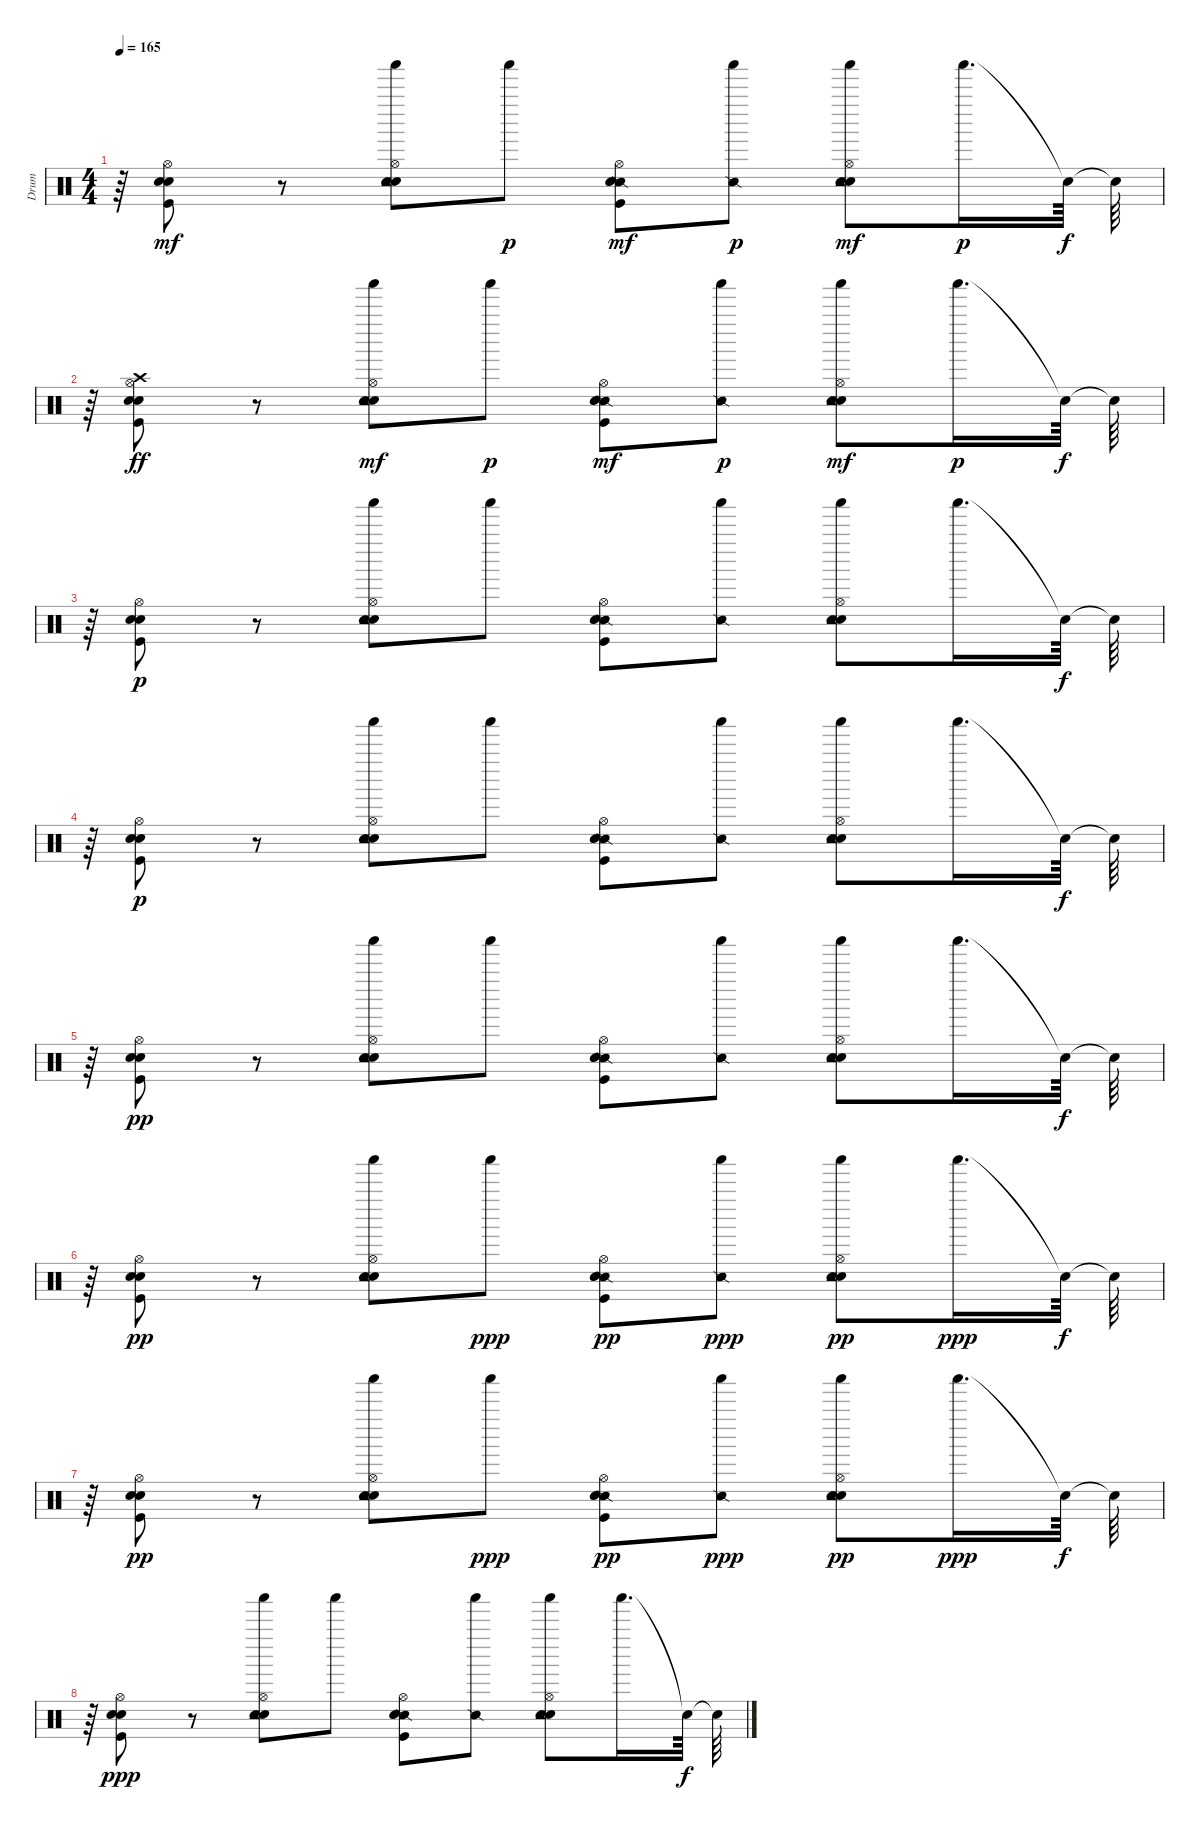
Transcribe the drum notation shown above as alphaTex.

\track ("Drum" "Drum") {instrument percussion}
\staff {score}
\articulation defaults
\ts (4 4)
\tempo 165
\clef neutral
\ks c
r.64{dy f} ("Kick (hit)" "Hand Clap (hit)" "Electric Snare (hit)" "Hi-Hat (open)").8{dy mf} r.8 ("Hand Clap (hit)" "Electric Snare (hit)" "Shaker (hit)" "Tambourine (hit)" "Hi-Hat (open)").8 "Shaker (hit)".8{dy p} ("Snare (side stick) 2" "Kick (hit)" "Hand Clap (hit)" "Electric Snare (hit)" "Hi-Hat (open)").8{dy mf} ("Snare (side stick) 2" "Shaker (hit)").8{dy p} ("Hand Clap (hit)" "Tambourine (hit)" "Electric Snare (hit)" "Shaker (hit)" "Hi-Hat (open)").8{dy mf} "Shaker (hit)".16{d dy p} "Snare (hit)"{t}.64{dy f} "Snare (hit)"{t}.64 |
r.64 ("Kick (hit)" "Hand Clap (hit)" "Electric Snare (hit)" "Hi-Hat (open)" "Crash high (hit)").8{dy ff} r.8 ("Hand Clap (hit)" "Electric Snare (hit)" "Shaker (hit)" "Tambourine (hit)" "Hi-Hat (open)").8{dy mf} "Shaker (hit)".8{dy p} ("Snare (side stick) 2" "Kick (hit)" "Hand Clap (hit)" "Electric Snare (hit)" "Hi-Hat (open)").8{dy mf} ("Snare (side stick) 2" "Shaker (hit)").8{dy p} ("Hand Clap (hit)" "Tambourine (hit)" "Electric Snare (hit)" "Shaker (hit)" "Hi-Hat (open)").8{dy mf} "Shaker (hit)".16{d dy p} "Snare (hit)"{t}.64{dy f} "Snare (hit)"{t}.64 |
r.64 ("Kick (hit)" "Hand Clap (hit)" "Electric Snare (hit)" "Hi-Hat (open)").8{dy p} r.8 ("Hand Clap (hit)" "Electric Snare (hit)" "Shaker (hit)" "Tambourine (hit)" "Hi-Hat (open)").8 "Shaker (hit)".8 ("Snare (side stick) 2" "Kick (hit)" "Hand Clap (hit)" "Electric Snare (hit)" "Hi-Hat (open)").8 ("Snare (side stick) 2" "Shaker (hit)").8 ("Hand Clap (hit)" "Tambourine (hit)" "Electric Snare (hit)" "Shaker (hit)" "Hi-Hat (open)").8 "Shaker (hit)".16{d} "Snare (hit)"{t}.64{dy f} "Snare (hit)"{t}.64 |
r.64 ("Kick (hit)" "Hand Clap (hit)" "Electric Snare (hit)" "Hi-Hat (open)").8{dy p} r.8 ("Hand Clap (hit)" "Electric Snare (hit)" "Shaker (hit)" "Tambourine (hit)" "Hi-Hat (open)").8 "Shaker (hit)".8 ("Snare (side stick) 2" "Kick (hit)" "Hand Clap (hit)" "Electric Snare (hit)" "Hi-Hat (open)").8 ("Snare (side stick) 2" "Shaker (hit)").8 ("Hand Clap (hit)" "Tambourine (hit)" "Electric Snare (hit)" "Shaker (hit)" "Hi-Hat (open)").8 "Shaker (hit)".16{d} "Snare (hit)"{t}.64{dy f} "Snare (hit)"{t}.64 |
r.64 ("Kick (hit)" "Hand Clap (hit)" "Electric Snare (hit)" "Hi-Hat (open)").8{dy pp} r.8 ("Hand Clap (hit)" "Electric Snare (hit)" "Shaker (hit)" "Tambourine (hit)" "Hi-Hat (open)").8 "Shaker (hit)".8 ("Snare (side stick) 2" "Kick (hit)" "Hand Clap (hit)" "Electric Snare (hit)" "Hi-Hat (open)").8 ("Snare (side stick) 2" "Shaker (hit)").8 ("Hand Clap (hit)" "Tambourine (hit)" "Electric Snare (hit)" "Shaker (hit)" "Hi-Hat (open)").8 "Shaker (hit)".16{d} "Snare (hit)"{t}.64{dy f} "Snare (hit)"{t}.64 |
r.64 ("Kick (hit)" "Hand Clap (hit)" "Electric Snare (hit)" "Hi-Hat (open)").8{dy pp} r.8 ("Hand Clap (hit)" "Electric Snare (hit)" "Shaker (hit)" "Tambourine (hit)" "Hi-Hat (open)").8 "Shaker (hit)".8{dy ppp} ("Snare (side stick) 2" "Kick (hit)" "Hand Clap (hit)" "Electric Snare (hit)" "Hi-Hat (open)").8{dy pp} ("Snare (side stick) 2" "Shaker (hit)").8{dy ppp} ("Hand Clap (hit)" "Tambourine (hit)" "Electric Snare (hit)" "Shaker (hit)" "Hi-Hat (open)").8{dy pp} "Shaker (hit)".16{d dy ppp} "Snare (hit)"{t}.64{dy f} "Snare (hit)"{t}.64 |
r.64 ("Kick (hit)" "Hand Clap (hit)" "Electric Snare (hit)" "Hi-Hat (open)").8{dy pp} r.8 ("Hand Clap (hit)" "Electric Snare (hit)" "Shaker (hit)" "Tambourine (hit)" "Hi-Hat (open)").8 "Shaker (hit)".8{dy ppp} ("Snare (side stick) 2" "Kick (hit)" "Hand Clap (hit)" "Electric Snare (hit)" "Hi-Hat (open)").8{dy pp} ("Snare (side stick) 2" "Shaker (hit)").8{dy ppp} ("Hand Clap (hit)" "Tambourine (hit)" "Electric Snare (hit)" "Shaker (hit)" "Hi-Hat (open)").8{dy pp} "Shaker (hit)".16{d dy ppp} "Snare (hit)"{t}.64{dy f} "Snare (hit)"{t}.64 |
r.64 ("Kick (hit)" "Hand Clap (hit)" "Electric Snare (hit)" "Hi-Hat (open)").8{dy ppp} r.8 ("Hand Clap (hit)" "Electric Snare (hit)" "Shaker (hit)" "Tambourine (hit)" "Hi-Hat (open)").8 "Shaker (hit)".8 ("Snare (side stick) 2" "Kick (hit)" "Hand Clap (hit)" "Electric Snare (hit)" "Hi-Hat (open)").8 ("Snare (side stick) 2" "Shaker (hit)").8 ("Hand Clap (hit)" "Tambourine (hit)" "Electric Snare (hit)" "Shaker (hit)" "Hi-Hat (open)").8 "Shaker (hit)".16{d} "Snare (hit)"{t}.64{dy f} "Snare (hit)"{t}.64
